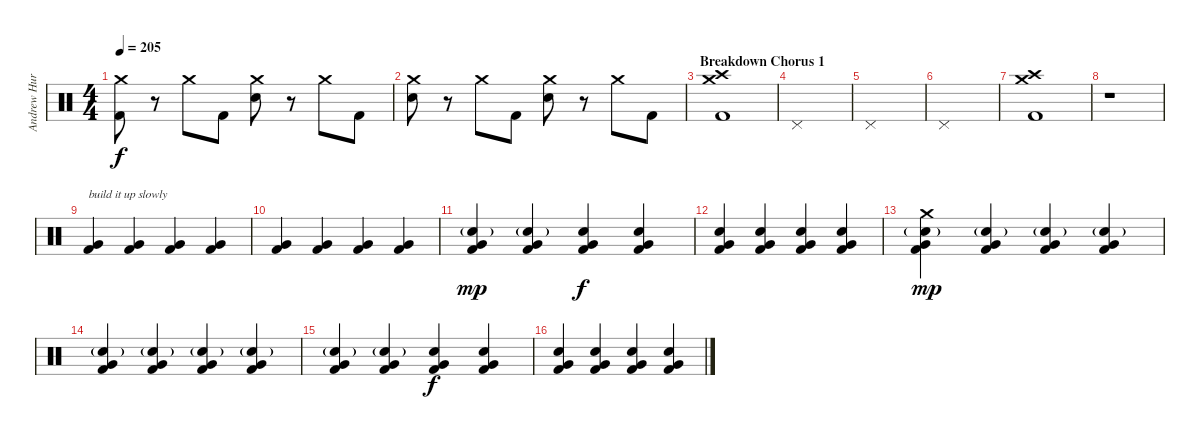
\track ("Andrew Hurley (Drums)" "Andrew Hur") {instrument percussion}
\staff {score}
\articulation defaults
\ts (4 4)
\tempo 205
\clef neutral
\ks c
("Crash medium (hit)" "Kick (hit) 2").8{dy f} r.8 "Crash medium (hit)".8 "Kick (hit) 2".8 ("Crash medium (hit)" "Electric Snare (hit)").8 r.8 "Crash medium (hit)".8 "Kick (hit) 2".8 |
("Crash medium (hit)" "Electric Snare (hit)").8 r.8 "Crash medium (hit)".8 "Kick (hit) 2".8 ("Crash medium (hit)" "Electric Snare (hit)").8 r.8 "Crash medium (hit)".8 "Kick (hit) 2".8 |
\section ("" "Breakdown Chorus 1")
("Crash medium (hit)" "Crash high (hit)" "Kick (hit) 2").1 |
"Pedal Hi-Hat (hit)".1{volume 9} |
"Pedal Hi-Hat (hit)".1 |
"Pedal Hi-Hat (hit)".1 |
("Crash medium (hit)" "Crash high (hit)" "Kick (hit) 2").1{volume 12} |
r.1{volume 8} |
("Very Low Tom (hit)" "Kick (hit) 2").4{txt "build it up slowly" volume 8} ("Very Low Tom (hit)" "Kick (hit) 2").4 ("Very Low Tom (hit)" "Kick (hit) 2").4 ("Very Low Tom (hit)" "Kick (hit) 2").4 |
("Very Low Tom (hit)" "Kick (hit) 2").4 ("Very Low Tom (hit)" "Kick (hit) 2").4 ("Very Low Tom (hit)" "Kick (hit) 2").4 ("Very Low Tom (hit)" "Kick (hit) 2").4 |
("Electric Snare (hit)"{g} "Very Low Tom (hit)" "Kick (hit) 2").4{dy mp} ("Electric Snare (hit)"{g} "Very Low Tom (hit)" "Kick (hit) 2").4 ("Electric Snare (hit)" "Very Low Tom (hit)" "Kick (hit) 2").4{dy f} ("Electric Snare (hit)" "Very Low Tom (hit)" "Kick (hit) 2").4 |
("Electric Snare (hit)" "Very Low Tom (hit)" "Kick (hit) 2").4 ("Electric Snare (hit)" "Very Low Tom (hit)" "Kick (hit) 2").4 ("Electric Snare (hit)" "Very Low Tom (hit)" "Kick (hit) 2").4 ("Electric Snare (hit)" "Very Low Tom (hit)" "Kick (hit) 2").4 |
("Crash medium (hit)" "Electric Snare (hit)"{g} "Very Low Tom (hit)" "Kick (hit) 2").4{dy mp volume 12} ("Electric Snare (hit)"{g} "Very Low Tom (hit)" "Kick (hit) 2").4 ("Electric Snare (hit)"{g} "Very Low Tom (hit)" "Kick (hit) 2").4 ("Electric Snare (hit)"{g} "Very Low Tom (hit)" "Kick (hit) 2").4 |
("Electric Snare (hit)"{g} "Very Low Tom (hit)" "Kick (hit) 2").4 ("Electric Snare (hit)"{g} "Very Low Tom (hit)" "Kick (hit) 2").4 ("Electric Snare (hit)"{g} "Very Low Tom (hit)" "Kick (hit) 2").4 ("Electric Snare (hit)"{g} "Very Low Tom (hit)" "Kick (hit) 2").4 |
("Electric Snare (hit)"{g} "Very Low Tom (hit)" "Kick (hit) 2").4 ("Electric Snare (hit)"{g} "Very Low Tom (hit)" "Kick (hit) 2").4 ("Electric Snare (hit)" "Very Low Tom (hit)" "Kick (hit) 2").4{dy f} ("Electric Snare (hit)" "Very Low Tom (hit)" "Kick (hit) 2").4 |
("Electric Snare (hit)" "Very Low Tom (hit)" "Kick (hit) 2").4 ("Electric Snare (hit)" "Very Low Tom (hit)" "Kick (hit) 2").4 ("Electric Snare (hit)" "Very Low Tom (hit)" "Kick (hit) 2").4 ("Electric Snare (hit)" "Very Low Tom (hit)" "Kick (hit) 2").4
